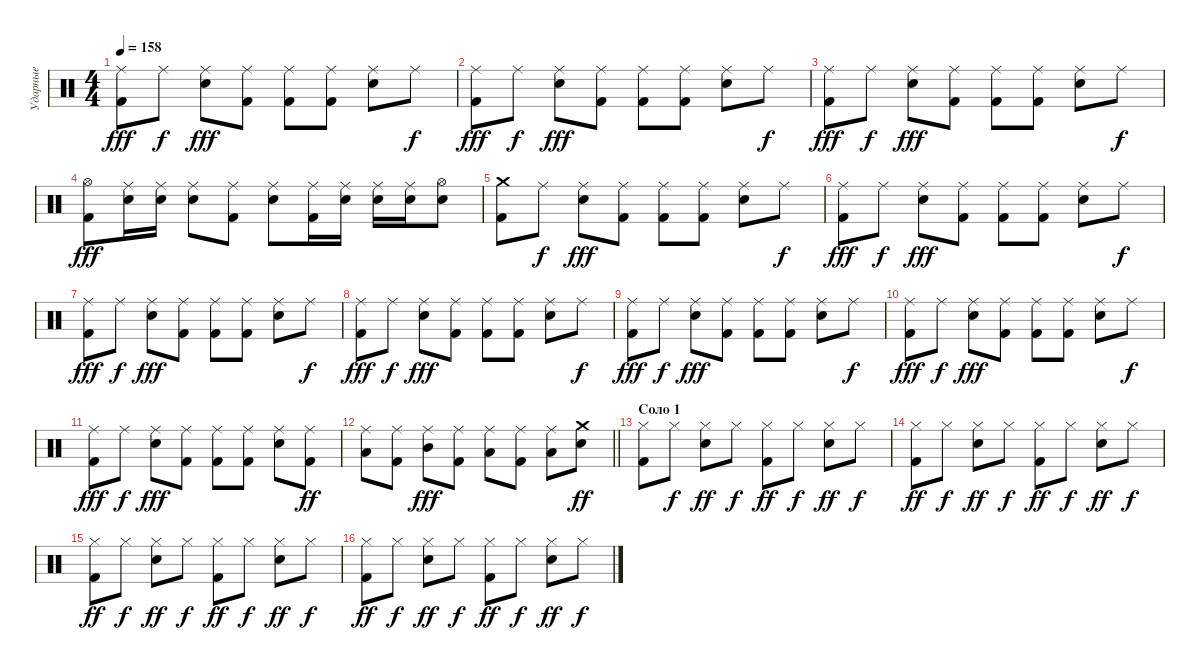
\track ("Ударные" "Ударные") {instrument percussion}
\staff {score}
\articulation defaults
\ts (4 4)
\tempo 158
\clef neutral
\ks c
("Ride (middle)" "Kick (hit) 2").8{dy fff} "Ride (middle)".8{dy f} ("Ride (middle)" "Electric Snare (hit)").8{dy fff} ("Ride (middle)" "Kick (hit) 2").8 ("Ride (middle)" "Kick (hit) 2").8 ("Ride (middle)" "Kick (hit) 2").8 ("Ride (middle)" "Snare (hit) 2").8 "Ride (middle)".8{dy f} |
("Ride (middle)" "Kick (hit) 2").8{dy fff} "Ride (middle)".8{dy f} ("Ride (middle)" "Electric Snare (hit)").8{dy fff} ("Ride (middle)" "Kick (hit) 2").8 ("Ride (middle)" "Kick (hit) 2").8 ("Ride (middle)" "Kick (hit) 2").8 ("Ride (middle)" "Snare (hit) 2").8 "Ride (middle)".8{dy f} |
("Ride (middle)" "Kick (hit) 2").8{dy fff} "Ride (middle)".8{dy f} ("Ride (middle)" "Electric Snare (hit)").8{dy fff} ("Ride (middle)" "Kick (hit) 2").8 ("Ride (middle)" "Kick (hit) 2").8 ("Ride (middle)" "Kick (hit) 2").8 ("Ride (middle)" "Snare (hit) 2").8 "Ride (middle)".8{dy f} |
("Hi-Hat (open)" "Kick (hit) 2").8{dy fff} ("Ride (middle)" "Electric Snare (hit)").16 ("Ride (middle)" "Electric Snare (hit)").16 ("Ride (middle)" "Electric Snare (hit)").8 ("Ride (middle)" "Kick (hit) 2").8 ("Ride (middle)" "Snare (hit) 2").8 ("Ride (middle)" "Kick (hit) 2").16 ("Ride (middle)" "Electric Snare (hit)").16 ("Ride (middle)" "Electric Snare (hit)").16 ("Ride (middle)" "Electric Snare (hit)").16 ("Hi-Hat (open)" "Electric Snare (hit)").8 |
("Crash medium (hit)" "Kick (hit) 2").8 "Ride (middle)".8{dy f} ("Ride (middle)" "Electric Snare (hit)").8{dy fff} ("Ride (middle)" "Kick (hit) 2").8 ("Ride (middle)" "Kick (hit) 2").8 ("Ride (middle)" "Kick (hit) 2").8 ("Ride (middle)" "Snare (hit) 2").8 "Ride (middle)".8{dy f} |
("Ride (middle)" "Kick (hit) 2").8{dy fff} "Ride (middle)".8{dy f} ("Ride (middle)" "Electric Snare (hit)").8{dy fff} ("Ride (middle)" "Kick (hit) 2").8 ("Ride (middle)" "Kick (hit) 2").8 ("Ride (middle)" "Kick (hit) 2").8 ("Ride (middle)" "Snare (hit) 2").8 "Ride (middle)".8{dy f} |
("Ride (middle)" "Kick (hit) 2").8{dy fff} "Ride (middle)".8{dy f} ("Ride (middle)" "Electric Snare (hit)").8{dy fff} ("Ride (middle)" "Kick (hit) 2").8 ("Ride (middle)" "Kick (hit) 2").8 ("Ride (middle)" "Kick (hit) 2").8 ("Ride (middle)" "Snare (hit) 2").8 "Ride (middle)".8{dy f} |
("Ride (middle)" "Kick (hit) 2").8{dy fff} "Ride (middle)".8{dy f} ("Ride (middle)" "Electric Snare (hit)").8{dy fff} ("Ride (middle)" "Kick (hit) 2").8 ("Ride (middle)" "Kick (hit) 2").8 ("Ride (middle)" "Kick (hit) 2").8 ("Ride (middle)" "Snare (hit) 2").8 "Ride (middle)".8{dy f} |
("Ride (middle)" "Kick (hit) 2").8{dy fff} "Ride (middle)".8{dy f} ("Ride (middle)" "Electric Snare (hit)").8{dy fff} ("Ride (middle)" "Kick (hit) 2").8 ("Ride (middle)" "Kick (hit) 2").8 ("Ride (middle)" "Kick (hit) 2").8 ("Ride (middle)" "Snare (hit) 2").8 "Ride (middle)".8{dy f} |
("Ride (middle)" "Kick (hit) 2").8{dy fff} "Ride (middle)".8{dy f} ("Ride (middle)" "Electric Snare (hit)").8{dy fff} ("Ride (middle)" "Kick (hit) 2").8 ("Ride (middle)" "Kick (hit) 2").8 ("Ride (middle)" "Kick (hit) 2").8 ("Ride (middle)" "Snare (hit) 2").8 "Ride (middle)".8{dy f} |
("Ride (middle)" "Kick (hit) 2").8{dy fff} "Ride (middle)".8{dy f} ("Ride (middle)" "Electric Snare (hit)").8{dy fff} ("Ride (middle)" "Kick (hit) 2").8 ("Ride (middle)" "Kick (hit) 2").8 ("Ride (middle)" "Kick (hit) 2").8 ("Ride (middle)" "Snare (hit) 2").8 ("Ride (middle)" "Kick (hit) 2").8{dy ff} |
\barLineRight lightlight
("Ride (middle)" "Low Tom (hit)").8 ("Ride (middle)" "Kick (hit) 2").8 ("Ride (middle)" "Mid Tom (hit)").8{dy fff} ("Ride (middle)" "Kick (hit) 2").8 ("Ride (middle)" "Low Tom (hit)").8 ("Ride (middle)" "Kick (hit) 2").8 ("Ride (middle)" "Low Tom (hit)").8 ("Crash medium (hit)" "Snare (hit) 2").8{dy ff} |
\section ("" "Соло 1")
("Hi-Hat (closed)" "Kick (hit) 2").8 "Hi-Hat (closed)".8{dy f} ("Hi-Hat (closed)" "Electric Snare (hit)").8{dy ff} "Hi-Hat (closed)".8{dy f} ("Hi-Hat (closed)" "Kick (hit) 2").8{dy ff} "Hi-Hat (closed)".8{dy f} ("Hi-Hat (closed)" "Electric Snare (hit)").8{dy ff} "Hi-Hat (closed)".8{dy f} |
("Hi-Hat (closed)" "Kick (hit) 2").8{dy ff} "Hi-Hat (closed)".8{dy f} ("Hi-Hat (closed)" "Electric Snare (hit)").8{dy ff} "Hi-Hat (closed)".8{dy f} ("Hi-Hat (closed)" "Kick (hit) 2").8{dy ff} "Hi-Hat (closed)".8{dy f} ("Hi-Hat (closed)" "Electric Snare (hit)").8{dy ff} "Hi-Hat (closed)".8{dy f} |
("Hi-Hat (closed)" "Kick (hit) 2").8{dy ff} "Hi-Hat (closed)".8{dy f} ("Hi-Hat (closed)" "Electric Snare (hit)").8{dy ff} "Hi-Hat (closed)".8{dy f} ("Hi-Hat (closed)" "Kick (hit) 2").8{dy ff} "Hi-Hat (closed)".8{dy f} ("Hi-Hat (closed)" "Electric Snare (hit)").8{dy ff} "Hi-Hat (closed)".8{dy f} |
("Hi-Hat (closed)" "Kick (hit) 2").8{dy ff} "Hi-Hat (closed)".8{dy f} ("Hi-Hat (closed)" "Electric Snare (hit)").8{dy ff} "Hi-Hat (closed)".8{dy f} ("Hi-Hat (closed)" "Kick (hit) 2").8{dy ff} "Hi-Hat (closed)".8{dy f} ("Hi-Hat (closed)" "Electric Snare (hit)").8{dy ff} "Hi-Hat (closed)".8{dy f}
